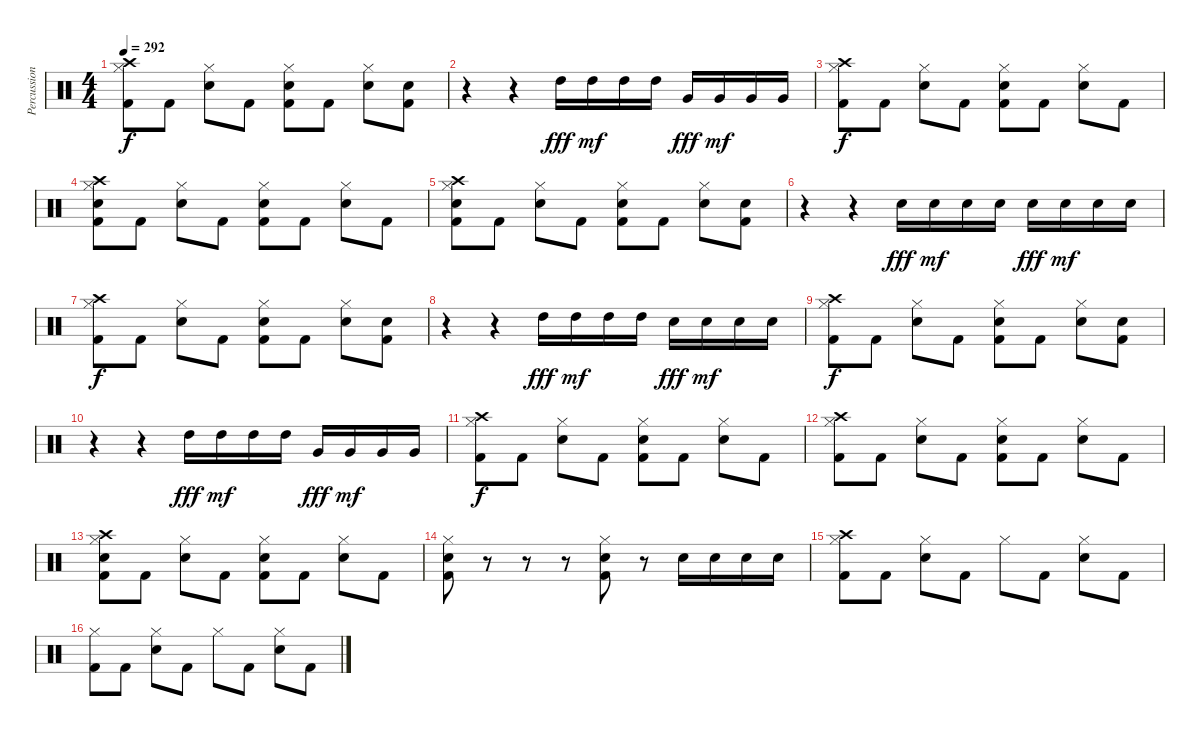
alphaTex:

\track ("Percussion" "Percussion") {instrument percussion}
\staff {score}
\articulation defaults
\ts (4 4)
\tempo 292
\clef neutral
\ks c
("Crash high (hit)" "Hi-Hat (closed)" "Kick (hit) 2").8{dy f} "Kick (hit) 2".8 ("Hi-Hat (closed)" "Electric Snare (hit)").8 "Kick (hit) 2".8 ("Hi-Hat (closed)" "Electric Snare (hit)" "Kick (hit) 2").8 "Kick (hit) 2".8 ("Hi-Hat (closed)" "Electric Snare (hit)").8 ("Electric Snare (hit)" "Kick (hit) 2").8 |
r.4 r.4 "High Tom (hit)".16{dy fff} "High Tom (hit)".16{dy mf} "High Tom (hit)".16 "High Tom (hit)".16 "Very Low Tom (hit)".16{dy fff} "Very Low Tom (hit)".16{dy mf} "Very Low Tom (hit)".16 "Very Low Tom (hit)".16 |
("Crash high (hit)" "Hi-Hat (closed)" "Kick (hit) 2").8{dy f} "Kick (hit) 2".8 ("Hi-Hat (closed)" "Electric Snare (hit)").8 "Kick (hit) 2".8 ("Hi-Hat (closed)" "Electric Snare (hit)" "Kick (hit) 2").8 "Kick (hit) 2".8 ("Hi-Hat (closed)" "Electric Snare (hit)").8 "Kick (hit) 2".8 |
("Crash high (hit)" "Hi-Hat (closed)" "Electric Snare (hit)" "Kick (hit) 2").8 "Kick (hit) 2".8 ("Hi-Hat (closed)" "Electric Snare (hit)").8 "Kick (hit) 2".8 ("Hi-Hat (closed)" "Electric Snare (hit)" "Kick (hit) 2").8 "Kick (hit) 2".8 ("Hi-Hat (closed)" "Electric Snare (hit)").8 "Kick (hit) 2".8 |
("Crash high (hit)" "Hi-Hat (closed)" "Electric Snare (hit)" "Kick (hit) 2").8 "Kick (hit) 2".8 ("Hi-Hat (closed)" "Electric Snare (hit)").8 "Kick (hit) 2".8 ("Hi-Hat (closed)" "Electric Snare (hit)" "Kick (hit) 2").8 "Kick (hit) 2".8 ("Hi-Hat (closed)" "Electric Snare (hit)").8 ("Electric Snare (hit)" "Kick (hit) 2").8 |
r.4 r.4 "Electric Snare (hit)".16{dy fff} "Electric Snare (hit)".16{dy mf} "Electric Snare (hit)".16 "Electric Snare (hit)".16 "Electric Snare (hit)".16{dy fff} "Electric Snare (hit)".16{dy mf} "Electric Snare (hit)".16 "Electric Snare (hit)".16 |
("Crash high (hit)" "Hi-Hat (closed)" "Kick (hit) 2").8{dy f} "Kick (hit) 2".8 ("Hi-Hat (closed)" "Electric Snare (hit)").8 "Kick (hit) 2".8 ("Hi-Hat (closed)" "Electric Snare (hit)" "Kick (hit) 2").8 "Kick (hit) 2".8 ("Hi-Hat (closed)" "Electric Snare (hit)").8 ("Electric Snare (hit)" "Kick (hit) 2").8 |
r.4 r.4 "High Tom (hit)".16{dy fff} "High Tom (hit)".16{dy mf} "High Tom (hit)".16 "High Tom (hit)".16 "Electric Snare (hit)".16{dy fff} "Electric Snare (hit)".16{dy mf} "Electric Snare (hit)".16 "Electric Snare (hit)".16 |
("Crash high (hit)" "Hi-Hat (closed)" "Kick (hit) 2").8{dy f} "Kick (hit) 2".8 ("Hi-Hat (closed)" "Electric Snare (hit)").8 "Kick (hit) 2".8 ("Hi-Hat (closed)" "Electric Snare (hit)" "Kick (hit) 2").8 "Kick (hit) 2".8 ("Hi-Hat (closed)" "Electric Snare (hit)").8 ("Electric Snare (hit)" "Kick (hit) 2").8 |
r.4 r.4 "High Tom (hit)".16{dy fff} "High Tom (hit)".16{dy mf} "High Tom (hit)".16 "High Tom (hit)".16 "Very Low Tom (hit)".16{dy fff} "Very Low Tom (hit)".16{dy mf} "Very Low Tom (hit)".16 "Very Low Tom (hit)".16 |
("Crash high (hit)" "Hi-Hat (closed)" "Kick (hit) 2").8{dy f} "Kick (hit) 2".8 ("Hi-Hat (closed)" "Electric Snare (hit)").8 "Kick (hit) 2".8 ("Hi-Hat (closed)" "Electric Snare (hit)" "Kick (hit) 2").8 "Kick (hit) 2".8 ("Hi-Hat (closed)" "Electric Snare (hit)").8 "Kick (hit) 2".8 |
("Crash high (hit)" "Hi-Hat (closed)" "Kick (hit) 2").8 "Kick (hit) 2".8 ("Hi-Hat (closed)" "Electric Snare (hit)").8 "Kick (hit) 2".8 ("Hi-Hat (closed)" "Electric Snare (hit)" "Kick (hit) 2").8 "Kick (hit) 2".8 ("Hi-Hat (closed)" "Electric Snare (hit)").8 "Kick (hit) 2".8 |
("Crash high (hit)" "Hi-Hat (closed)" "Electric Snare (hit)" "Kick (hit) 2").8 "Kick (hit) 2".8 ("Hi-Hat (closed)" "Electric Snare (hit)").8 "Kick (hit) 2".8 ("Hi-Hat (closed)" "Electric Snare (hit)" "Kick (hit) 2").8 "Kick (hit) 2".8 ("Hi-Hat (closed)" "Electric Snare (hit)").8 "Kick (hit) 2".8 |
("Hi-Hat (closed)" "Electric Snare (hit)" "Kick (hit) 2").8 r.8 r.8 r.8 ("Hi-Hat (closed)" "Electric Snare (hit)" "Kick (hit) 2").8 r.8 "Electric Snare (hit)".16 "Electric Snare (hit)".16 "Electric Snare (hit)".16 "Electric Snare (hit)".16 |
("Crash high (hit)" "Hi-Hat (closed)" "Kick (hit) 2").8 "Kick (hit) 2".8 ("Hi-Hat (closed)" "Electric Snare (hit)").8 "Kick (hit) 2".8 "Hi-Hat (closed)".8 "Kick (hit) 2".8 ("Hi-Hat (closed)" "Electric Snare (hit)").8 "Kick (hit) 2".8 |
("Hi-Hat (closed)" "Kick (hit) 2").8 "Kick (hit) 2".8 ("Hi-Hat (closed)" "Electric Snare (hit)").8 "Kick (hit) 2".8 "Hi-Hat (closed)".8 "Kick (hit) 2".8 ("Hi-Hat (closed)" "Electric Snare (hit)").8 "Kick (hit) 2".8
